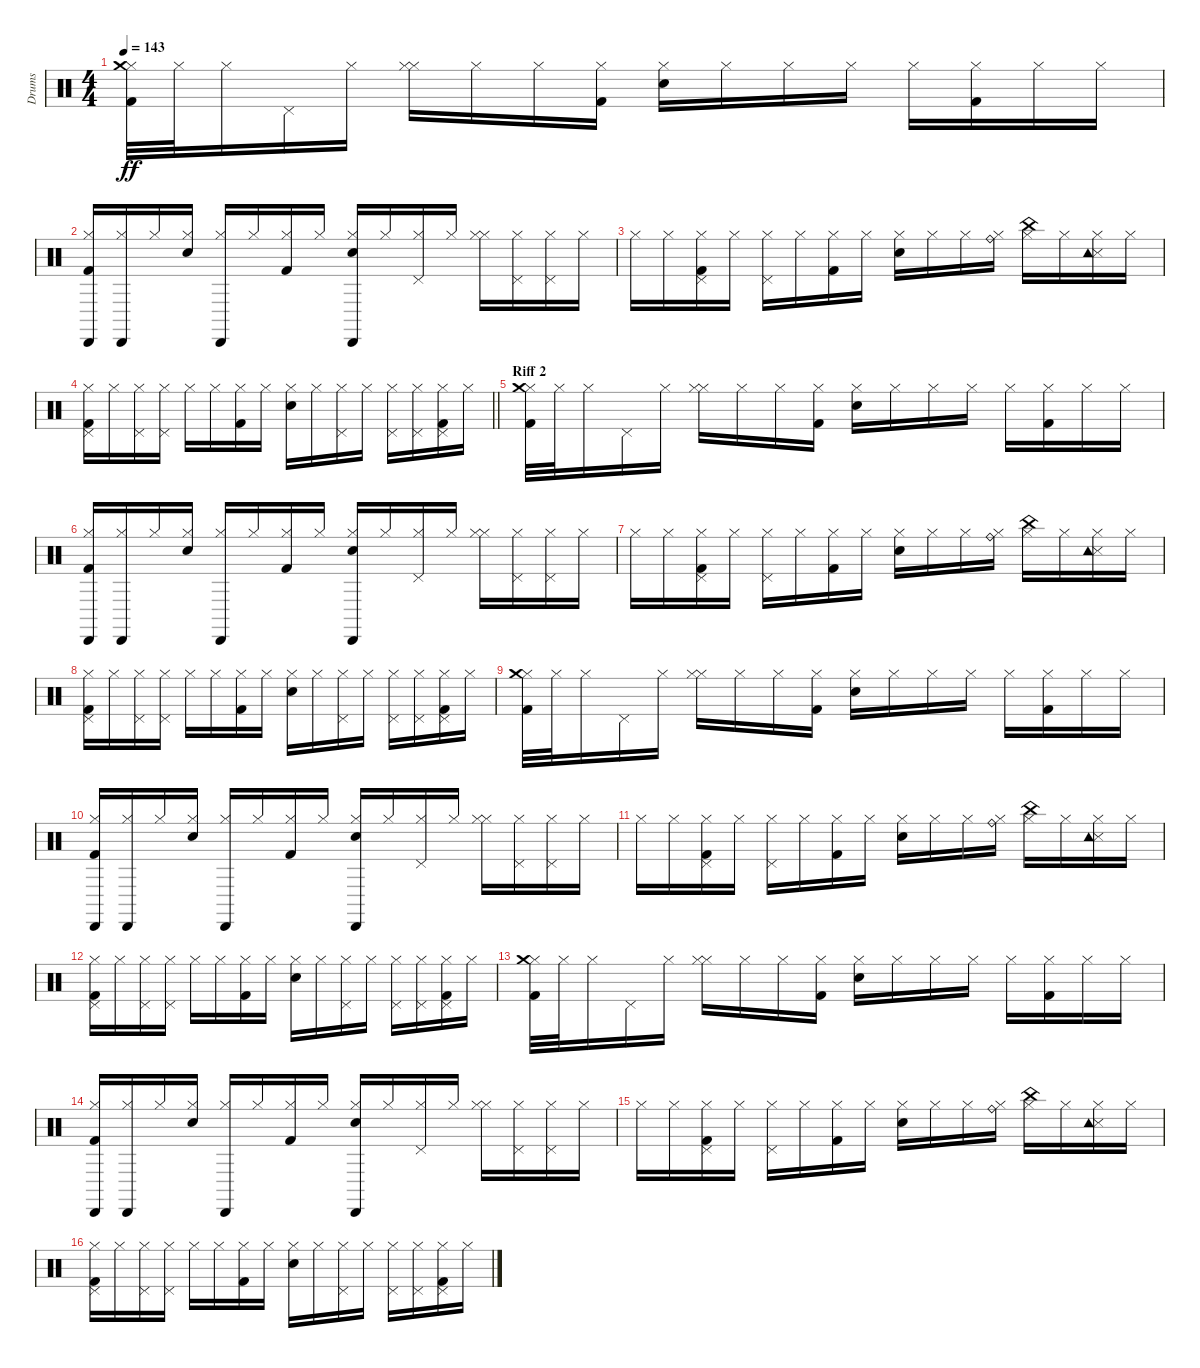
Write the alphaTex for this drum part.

\track ("Drums" "Drums") {instrument percussion}
\staff {score}
\articulation defaults
\ts (4 4)
\tempo 143
\clef neutral
\ks c
("Kick (hit) 2" "Hi-Hat (closed)" "Crash medium (hit)").32{dy ff} "Hi-Hat (closed)".32 "Hi-Hat (closed)".16 "Pedal Hi-Hat (hit)".16 "Hi-Hat (closed)".16 ("Hi-Hat (closed)" "Hi-Hat (closed)").16 "Hi-Hat (closed)".16 "Hi-Hat (closed)".16 ("Kick (hit) 2" "Hi-Hat (closed)").16 ("Snare (hit) 2" "Hi-Hat (closed)").16 "Hi-Hat (closed)".16 "Hi-Hat (closed)".16 "Hi-Hat (closed)".16 "Hi-Hat (closed)".16 ("Kick (hit) 2" "Hi-Hat (closed)").16 "Hi-Hat (closed)".16 "Hi-Hat (closed)".16 |
("Kick (hit) 2" "Cabasa (hit)" "Hi-Hat (closed)").16 ("Cabasa (hit)" "Hi-Hat (closed)").16 "Hi-Hat (closed)".16 ("Snare (hit) 2" "Hi-Hat (closed)").16 ("Cabasa (hit)" "Hi-Hat (closed)").16 "Hi-Hat (closed)".16 ("Kick (hit) 2" "Hi-Hat (closed)").16 "Hi-Hat (closed)".16 ("Snare (hit) 2" "Cabasa (hit)" "Hi-Hat (closed)").16 "Hi-Hat (closed)".16 ("Pedal Hi-Hat (hit)" "Hi-Hat (closed)").16 "Hi-Hat (closed)".16 ("Hi-Hat (closed)" "Hi-Hat (closed)").16 ("Pedal Hi-Hat (hit)" "Hi-Hat (closed)").16 ("Pedal Hi-Hat (hit)" "Hi-Hat (closed)").16 "Hi-Hat (closed)".16 |
"Hi-Hat (closed)".16 "Hi-Hat (closed)".16 ("Kick (hit) 2" "Pedal Hi-Hat (hit)" "Hi-Hat (closed)").16 "Hi-Hat (closed)".16 ("Hi-Hat (closed)" "Pedal Hi-Hat (hit)").16 "Hi-Hat (closed)".16 ("Kick (hit) 2" "Hi-Hat (closed)").16 "Hi-Hat (closed)".16 ("Snare (hit) 2" "Hi-Hat (closed)").16 "Hi-Hat (closed)".16 "Hi-Hat (closed)".16 ("Ride (bell)" "Hi-Hat (closed)").16 ("China (hit)" "Hi-Hat (closed)").16 "Hi-Hat (closed)".16 ("Snare (side stick) 3" "Tambourine (hit)" "Hi-Hat (closed)").16 "Hi-Hat (closed)".16 |
\barLineRight lightlight
("Kick (hit) 2" "Hi-Hat (closed)" "Pedal Hi-Hat (hit)").16 "Hi-Hat (closed)".16 ("Hi-Hat (closed)" "Pedal Hi-Hat (hit)").16 ("Hi-Hat (closed)" "Pedal Hi-Hat (hit)").16 "Hi-Hat (closed)".16 "Hi-Hat (closed)".16 ("Kick (hit) 2" "Hi-Hat (closed)").16 "Hi-Hat (closed)".16 ("Snare (hit) 2" "Hi-Hat (closed)").16 "Hi-Hat (closed)".16 ("Hi-Hat (closed)" "Pedal Hi-Hat (hit)").16 "Hi-Hat (closed)".16 ("Hi-Hat (closed)" "Pedal Hi-Hat (hit)").16 ("Hi-Hat (closed)" "Pedal Hi-Hat (hit)").16 ("Kick (hit) 2" "Hi-Hat (closed)" "Pedal Hi-Hat (hit)").16 "Hi-Hat (closed)".16 |
\section ("" "Riff 2")
("Kick (hit) 2" "Hi-Hat (closed)" "Crash medium (hit)").32 "Hi-Hat (closed)".32 "Hi-Hat (closed)".16 "Pedal Hi-Hat (hit)".16 "Hi-Hat (closed)".16 ("Hi-Hat (closed)" "Hi-Hat (closed)").16 "Hi-Hat (closed)".16 "Hi-Hat (closed)".16 ("Kick (hit) 2" "Hi-Hat (closed)").16 ("Snare (hit) 2" "Hi-Hat (closed)").16 "Hi-Hat (closed)".16 "Hi-Hat (closed)".16 "Hi-Hat (closed)".16 "Hi-Hat (closed)".16 ("Kick (hit) 2" "Hi-Hat (closed)").16 "Hi-Hat (closed)".16 "Hi-Hat (closed)".16 |
("Kick (hit) 2" "Cabasa (hit)" "Hi-Hat (closed)").16 ("Cabasa (hit)" "Hi-Hat (closed)").16 "Hi-Hat (closed)".16 ("Snare (hit) 2" "Hi-Hat (closed)").16 ("Cabasa (hit)" "Hi-Hat (closed)").16 "Hi-Hat (closed)".16 ("Kick (hit) 2" "Hi-Hat (closed)").16 "Hi-Hat (closed)".16 ("Snare (hit) 2" "Cabasa (hit)" "Hi-Hat (closed)").16 "Hi-Hat (closed)".16 ("Pedal Hi-Hat (hit)" "Hi-Hat (closed)").16 "Hi-Hat (closed)".16 ("Hi-Hat (closed)" "Hi-Hat (closed)").16 ("Pedal Hi-Hat (hit)" "Hi-Hat (closed)").16 ("Pedal Hi-Hat (hit)" "Hi-Hat (closed)").16 "Hi-Hat (closed)".16 |
"Hi-Hat (closed)".16 "Hi-Hat (closed)".16 ("Kick (hit) 2" "Pedal Hi-Hat (hit)" "Hi-Hat (closed)").16 "Hi-Hat (closed)".16 ("Hi-Hat (closed)" "Pedal Hi-Hat (hit)").16 "Hi-Hat (closed)".16 ("Kick (hit) 2" "Hi-Hat (closed)").16 "Hi-Hat (closed)".16 ("Snare (hit) 2" "Hi-Hat (closed)").16 "Hi-Hat (closed)".16 "Hi-Hat (closed)".16 ("Ride (bell)" "Hi-Hat (closed)").16 ("China (hit)" "Hi-Hat (closed)").16 "Hi-Hat (closed)".16 ("Snare (side stick) 3" "Tambourine (hit)" "Hi-Hat (closed)").16 "Hi-Hat (closed)".16 |
("Kick (hit) 2" "Hi-Hat (closed)" "Pedal Hi-Hat (hit)").16 "Hi-Hat (closed)".16 ("Hi-Hat (closed)" "Pedal Hi-Hat (hit)").16 ("Hi-Hat (closed)" "Pedal Hi-Hat (hit)").16 "Hi-Hat (closed)".16 "Hi-Hat (closed)".16 ("Kick (hit) 2" "Hi-Hat (closed)").16 "Hi-Hat (closed)".16 ("Snare (hit) 2" "Hi-Hat (closed)").16 "Hi-Hat (closed)".16 ("Hi-Hat (closed)" "Pedal Hi-Hat (hit)").16 "Hi-Hat (closed)".16 ("Hi-Hat (closed)" "Pedal Hi-Hat (hit)").16 ("Hi-Hat (closed)" "Pedal Hi-Hat (hit)").16 ("Kick (hit) 2" "Hi-Hat (closed)" "Pedal Hi-Hat (hit)").16 "Hi-Hat (closed)".16 |
("Kick (hit) 2" "Hi-Hat (closed)" "Crash medium (hit)").32 "Hi-Hat (closed)".32 "Hi-Hat (closed)".16 "Pedal Hi-Hat (hit)".16 "Hi-Hat (closed)".16 ("Hi-Hat (closed)" "Hi-Hat (closed)").16 "Hi-Hat (closed)".16 "Hi-Hat (closed)".16 ("Kick (hit) 2" "Hi-Hat (closed)").16 ("Snare (hit) 2" "Hi-Hat (closed)").16 "Hi-Hat (closed)".16 "Hi-Hat (closed)".16 "Hi-Hat (closed)".16 "Hi-Hat (closed)".16 ("Kick (hit) 2" "Hi-Hat (closed)").16 "Hi-Hat (closed)".16 "Hi-Hat (closed)".16 |
("Kick (hit) 2" "Cabasa (hit)" "Hi-Hat (closed)").16 ("Cabasa (hit)" "Hi-Hat (closed)").16 "Hi-Hat (closed)".16 ("Snare (hit) 2" "Hi-Hat (closed)").16 ("Cabasa (hit)" "Hi-Hat (closed)").16 "Hi-Hat (closed)".16 ("Kick (hit) 2" "Hi-Hat (closed)").16 "Hi-Hat (closed)".16 ("Snare (hit) 2" "Cabasa (hit)" "Hi-Hat (closed)").16 "Hi-Hat (closed)".16 ("Pedal Hi-Hat (hit)" "Hi-Hat (closed)").16 "Hi-Hat (closed)".16 ("Hi-Hat (closed)" "Hi-Hat (closed)").16 ("Pedal Hi-Hat (hit)" "Hi-Hat (closed)").16 ("Pedal Hi-Hat (hit)" "Hi-Hat (closed)").16 "Hi-Hat (closed)".16 |
"Hi-Hat (closed)".16 "Hi-Hat (closed)".16 ("Kick (hit) 2" "Pedal Hi-Hat (hit)" "Hi-Hat (closed)").16 "Hi-Hat (closed)".16 ("Hi-Hat (closed)" "Pedal Hi-Hat (hit)").16 "Hi-Hat (closed)".16 ("Kick (hit) 2" "Hi-Hat (closed)").16 "Hi-Hat (closed)".16 ("Snare (hit) 2" "Hi-Hat (closed)").16 "Hi-Hat (closed)".16 "Hi-Hat (closed)".16 ("Ride (bell)" "Hi-Hat (closed)").16 ("China (hit)" "Hi-Hat (closed)").16 "Hi-Hat (closed)".16 ("Snare (side stick) 3" "Tambourine (hit)" "Hi-Hat (closed)").16 "Hi-Hat (closed)".16 |
("Kick (hit) 2" "Hi-Hat (closed)" "Pedal Hi-Hat (hit)").16 "Hi-Hat (closed)".16 ("Hi-Hat (closed)" "Pedal Hi-Hat (hit)").16 ("Hi-Hat (closed)" "Pedal Hi-Hat (hit)").16 "Hi-Hat (closed)".16 "Hi-Hat (closed)".16 ("Kick (hit) 2" "Hi-Hat (closed)").16 "Hi-Hat (closed)".16 ("Snare (hit) 2" "Hi-Hat (closed)").16 "Hi-Hat (closed)".16 ("Hi-Hat (closed)" "Pedal Hi-Hat (hit)").16 "Hi-Hat (closed)".16 ("Hi-Hat (closed)" "Pedal Hi-Hat (hit)").16 ("Hi-Hat (closed)" "Pedal Hi-Hat (hit)").16 ("Kick (hit) 2" "Hi-Hat (closed)" "Pedal Hi-Hat (hit)").16 "Hi-Hat (closed)".16 |
("Kick (hit) 2" "Hi-Hat (closed)" "Crash medium (hit)").32 "Hi-Hat (closed)".32 "Hi-Hat (closed)".16 "Pedal Hi-Hat (hit)".16 "Hi-Hat (closed)".16 ("Hi-Hat (closed)" "Hi-Hat (closed)").16 "Hi-Hat (closed)".16 "Hi-Hat (closed)".16 ("Kick (hit) 2" "Hi-Hat (closed)").16 ("Snare (hit) 2" "Hi-Hat (closed)").16 "Hi-Hat (closed)".16 "Hi-Hat (closed)".16 "Hi-Hat (closed)".16 "Hi-Hat (closed)".16 ("Kick (hit) 2" "Hi-Hat (closed)").16 "Hi-Hat (closed)".16 "Hi-Hat (closed)".16 |
("Kick (hit) 2" "Cabasa (hit)" "Hi-Hat (closed)").16 ("Cabasa (hit)" "Hi-Hat (closed)").16 "Hi-Hat (closed)".16 ("Snare (hit) 2" "Hi-Hat (closed)").16 ("Cabasa (hit)" "Hi-Hat (closed)").16 "Hi-Hat (closed)".16 ("Kick (hit) 2" "Hi-Hat (closed)").16 "Hi-Hat (closed)".16 ("Snare (hit) 2" "Cabasa (hit)" "Hi-Hat (closed)").16 "Hi-Hat (closed)".16 ("Pedal Hi-Hat (hit)" "Hi-Hat (closed)").16 "Hi-Hat (closed)".16 ("Hi-Hat (closed)" "Hi-Hat (closed)").16 ("Pedal Hi-Hat (hit)" "Hi-Hat (closed)").16 ("Pedal Hi-Hat (hit)" "Hi-Hat (closed)").16 "Hi-Hat (closed)".16 |
"Hi-Hat (closed)".16 "Hi-Hat (closed)".16 ("Kick (hit) 2" "Pedal Hi-Hat (hit)" "Hi-Hat (closed)").16 "Hi-Hat (closed)".16 ("Hi-Hat (closed)" "Pedal Hi-Hat (hit)").16 "Hi-Hat (closed)".16 ("Kick (hit) 2" "Hi-Hat (closed)").16 "Hi-Hat (closed)".16 ("Snare (hit) 2" "Hi-Hat (closed)").16 "Hi-Hat (closed)".16 "Hi-Hat (closed)".16 ("Ride (bell)" "Hi-Hat (closed)").16 ("China (hit)" "Hi-Hat (closed)").16 "Hi-Hat (closed)".16 ("Snare (side stick) 3" "Tambourine (hit)" "Hi-Hat (closed)").16 "Hi-Hat (closed)".16 |
("Kick (hit) 2" "Hi-Hat (closed)" "Pedal Hi-Hat (hit)").16 "Hi-Hat (closed)".16 ("Hi-Hat (closed)" "Pedal Hi-Hat (hit)").16 ("Hi-Hat (closed)" "Pedal Hi-Hat (hit)").16 "Hi-Hat (closed)".16 "Hi-Hat (closed)".16 ("Kick (hit) 2" "Hi-Hat (closed)").16 "Hi-Hat (closed)".16 ("Snare (hit) 2" "Hi-Hat (closed)").16 "Hi-Hat (closed)".16 ("Hi-Hat (closed)" "Pedal Hi-Hat (hit)").16 "Hi-Hat (closed)".16 ("Hi-Hat (closed)" "Pedal Hi-Hat (hit)").16 ("Hi-Hat (closed)" "Pedal Hi-Hat (hit)").16 ("Kick (hit) 2" "Hi-Hat (closed)" "Pedal Hi-Hat (hit)").16 "Hi-Hat (closed)".16
